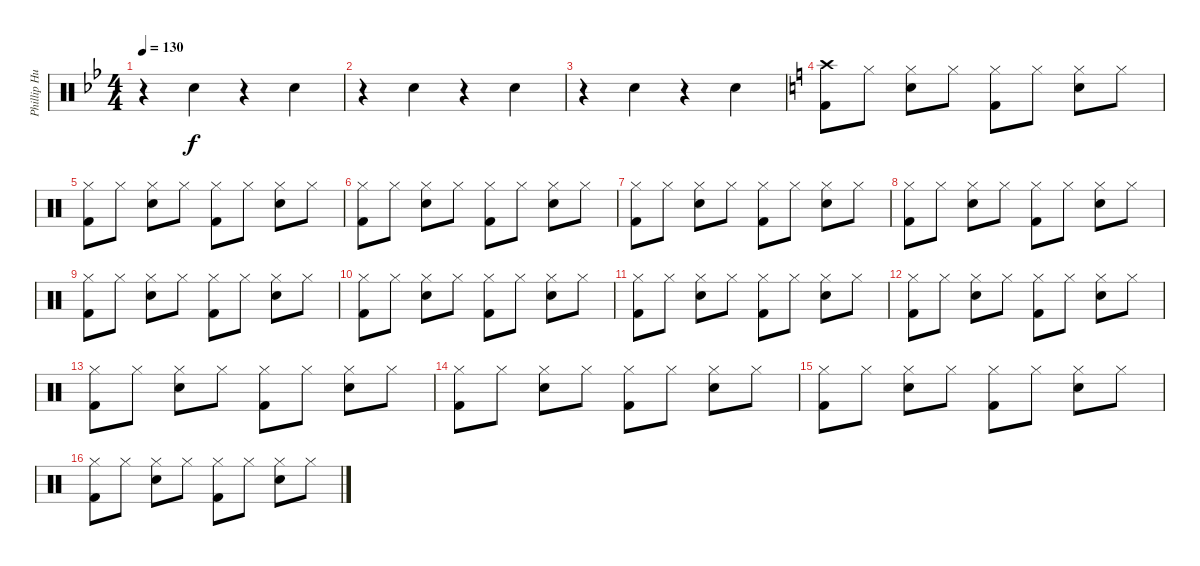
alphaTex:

\track ("Phillip Hungh" "Phillip Hu") {instrument percussion}
\staff {score}
\articulation defaults
\ts (4 4)
\tempo 130
\clef neutral
\ks bb
r.4{dy f} "Snare (hit) 2".4 r.4 "Snare (hit) 2".4 |
r.4 "Snare (hit) 2".4 r.4 "Snare (hit) 2".4 |
r.4 "Snare (hit) 2".4 r.4 "Snare (hit) 2".4 |
\ks c
("Crash high (hit)" "Kick (hit) 2").8 "Hi-Hat (closed)".8 ("Hi-Hat (closed)" "Snare (hit) 2").8 "Hi-Hat (closed)".8 ("Hi-Hat (closed)" "Kick (hit) 2").8 "Hi-Hat (closed)".8 ("Hi-Hat (closed)" "Snare (hit) 2").8 "Hi-Hat (closed)".8 |
("Hi-Hat (closed)" "Kick (hit) 2").8 "Hi-Hat (closed)".8 ("Hi-Hat (closed)" "Snare (hit) 2").8 "Hi-Hat (closed)".8 ("Hi-Hat (closed)" "Kick (hit) 2").8 "Hi-Hat (closed)".8 ("Hi-Hat (closed)" "Snare (hit) 2").8 "Hi-Hat (closed)".8 |
("Hi-Hat (closed)" "Kick (hit) 2").8 "Hi-Hat (closed)".8 ("Hi-Hat (closed)" "Snare (hit) 2").8 "Hi-Hat (closed)".8 ("Hi-Hat (closed)" "Kick (hit) 2").8 "Hi-Hat (closed)".8 ("Hi-Hat (closed)" "Snare (hit) 2").8 "Hi-Hat (closed)".8 |
("Hi-Hat (closed)" "Kick (hit) 2").8 "Hi-Hat (closed)".8 ("Hi-Hat (closed)" "Snare (hit) 2").8 "Hi-Hat (closed)".8 ("Hi-Hat (closed)" "Kick (hit) 2").8 "Hi-Hat (closed)".8 ("Hi-Hat (closed)" "Snare (hit) 2").8 "Hi-Hat (closed)".8 |
("Hi-Hat (closed)" "Kick (hit) 2").8 "Hi-Hat (closed)".8 ("Hi-Hat (closed)" "Snare (hit) 2").8 "Hi-Hat (closed)".8 ("Hi-Hat (closed)" "Kick (hit) 2").8 "Hi-Hat (closed)".8 ("Hi-Hat (closed)" "Snare (hit) 2").8 "Hi-Hat (closed)".8 |
("Hi-Hat (closed)" "Kick (hit) 2").8 "Hi-Hat (closed)".8 ("Hi-Hat (closed)" "Snare (hit) 2").8 "Hi-Hat (closed)".8 ("Hi-Hat (closed)" "Kick (hit) 2").8 "Hi-Hat (closed)".8 ("Hi-Hat (closed)" "Snare (hit) 2").8 "Hi-Hat (closed)".8 |
("Hi-Hat (closed)" "Kick (hit) 2").8 "Hi-Hat (closed)".8 ("Hi-Hat (closed)" "Snare (hit) 2").8 "Hi-Hat (closed)".8 ("Hi-Hat (closed)" "Kick (hit) 2").8 "Hi-Hat (closed)".8 ("Hi-Hat (closed)" "Snare (hit) 2").8 "Hi-Hat (closed)".8 |
("Hi-Hat (closed)" "Kick (hit) 2").8 "Hi-Hat (closed)".8 ("Hi-Hat (closed)" "Snare (hit) 2").8 "Hi-Hat (closed)".8 ("Hi-Hat (closed)" "Kick (hit) 2").8 "Hi-Hat (closed)".8 ("Hi-Hat (closed)" "Snare (hit) 2").8 "Hi-Hat (closed)".8 |
("Hi-Hat (closed)" "Kick (hit) 2").8 "Hi-Hat (closed)".8 ("Hi-Hat (closed)" "Snare (hit) 2").8 "Hi-Hat (closed)".8 ("Hi-Hat (closed)" "Kick (hit) 2").8 "Hi-Hat (closed)".8 ("Hi-Hat (closed)" "Snare (hit) 2").8 "Hi-Hat (closed)".8 |
("Hi-Hat (closed)" "Kick (hit) 2").8 "Hi-Hat (closed)".8 ("Hi-Hat (closed)" "Snare (hit) 2").8 "Hi-Hat (closed)".8 ("Hi-Hat (closed)" "Kick (hit) 2").8 "Hi-Hat (closed)".8 ("Hi-Hat (closed)" "Snare (hit) 2").8 "Hi-Hat (closed)".8 |
("Hi-Hat (closed)" "Kick (hit) 2").8 "Hi-Hat (closed)".8 ("Hi-Hat (closed)" "Snare (hit) 2").8 "Hi-Hat (closed)".8 ("Hi-Hat (closed)" "Kick (hit) 2").8 "Hi-Hat (closed)".8 ("Hi-Hat (closed)" "Snare (hit) 2").8 "Hi-Hat (closed)".8 |
("Hi-Hat (closed)" "Kick (hit) 2").8 "Hi-Hat (closed)".8 ("Hi-Hat (closed)" "Snare (hit) 2").8 "Hi-Hat (closed)".8 ("Hi-Hat (closed)" "Kick (hit) 2").8 "Hi-Hat (closed)".8 ("Hi-Hat (closed)" "Snare (hit) 2").8 "Hi-Hat (closed)".8 |
("Hi-Hat (closed)" "Kick (hit) 2").8 "Hi-Hat (closed)".8 ("Hi-Hat (closed)" "Snare (hit) 2").8 "Hi-Hat (closed)".8 ("Hi-Hat (closed)" "Kick (hit) 2").8 "Hi-Hat (closed)".8 ("Hi-Hat (closed)" "Snare (hit) 2").8 "Hi-Hat (closed)".8
